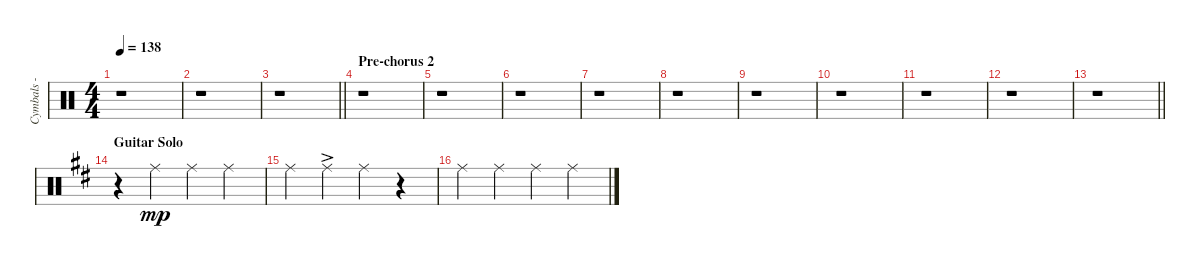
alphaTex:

\track ("Cymbals - ride" "Cymbals - ") {instrument percussion}
\staff {score}
\articulation defaults
\ts (4 4)
\tempo 138
\clef neutral
\ks c
r.1{dy mp} |
r.1 |
\barLineRight lightlight
r.1 |
\section ("" "Pre-chorus 2")
r.1 |
r.1 |
r.1 |
r.1 |
r.1 |
r.1 |
r.1 |
r.1 |
r.1 |
\barLineRight lightlight
r.1 |
\section ("" "Guitar Solo")
\ks d
r.4 "Ride (middle)".4 "Ride (middle)".4 "Ride (middle)".4 |
"Ride (middle)".4 "Ride (middle)"{ac}.4 "Ride (middle)".4 r.4 |
"Ride (middle)".4 "Ride (middle)".4 "Ride (middle)".4 "Ride (middle)".4
